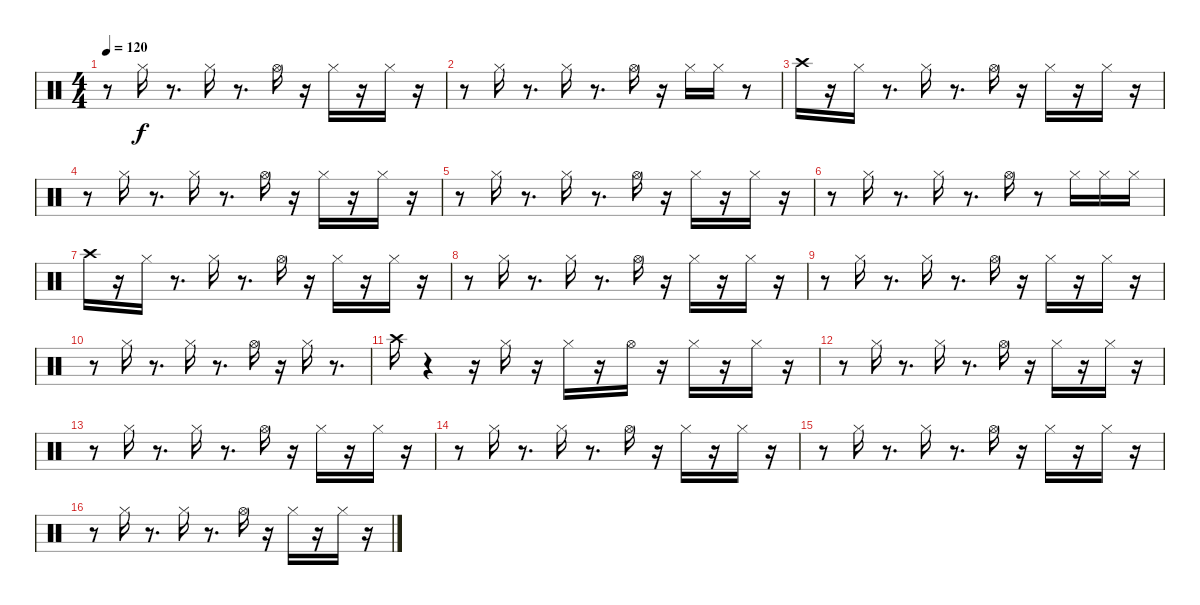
\track "" {instrument percussion}
\staff {score}
\articulation defaults
\ts (4 4)
\tempo 120
\clef neutral
\ks c
r.8{dy f} "Hi-Hat (closed)".16 r.8{d} "Hi-Hat (closed)".16 r.8{d} "Hi-Hat (open)".16 r.16 "Hi-Hat (closed)".16 r.16 "Hi-Hat (closed)".16 r.16 |
r.8 "Hi-Hat (closed)".16 r.8{d} "Hi-Hat (closed)".16 r.8{d} "Hi-Hat (open)".16 r.16 "Hi-Hat (closed)".16 "Hi-Hat (closed)".16 r.8 |
"Crash high (hit)".16 r.16 "Hi-Hat (closed)".16 r.8{d} "Hi-Hat (closed)".16 r.8{d} "Hi-Hat (open)".16 r.16 "Hi-Hat (closed)".16 r.16 "Hi-Hat (closed)".16 r.16 |
r.8 "Hi-Hat (closed)".16 r.8{d} "Hi-Hat (closed)".16 r.8{d} "Hi-Hat (open)".16 r.16 "Hi-Hat (closed)".16 r.16 "Hi-Hat (closed)".16 r.16 |
r.8 "Hi-Hat (closed)".16 r.8{d} "Hi-Hat (closed)".16 r.8{d} "Hi-Hat (open)".16 r.16 "Hi-Hat (closed)".16 r.16 "Hi-Hat (closed)".16 r.16 |
r.8 "Hi-Hat (closed)".16 r.8{d} "Hi-Hat (closed)".16 r.8{d} "Hi-Hat (open)".16 r.8 "Hi-Hat (closed)".16 "Hi-Hat (closed)".16 "Hi-Hat (closed)".16 |
"Crash high (hit)".16 r.16 "Hi-Hat (closed)".16 r.8{d} "Hi-Hat (closed)".16 r.8{d} "Hi-Hat (open)".16 r.16 "Hi-Hat (closed)".16 r.16 "Hi-Hat (closed)".16 r.16 |
r.8 "Hi-Hat (closed)".16 r.8{d} "Hi-Hat (closed)".16 r.8{d} "Hi-Hat (open)".16 r.16 "Hi-Hat (closed)".16 r.16 "Hi-Hat (closed)".16 r.16 |
r.8 "Hi-Hat (closed)".16 r.8{d} "Hi-Hat (closed)".16 r.8{d} "Hi-Hat (open)".16 r.16 "Hi-Hat (closed)".16 r.16 "Hi-Hat (closed)".16 r.16 |
r.8 "Hi-Hat (closed)".16 r.8{d} "Hi-Hat (closed)".16 r.8{d} "Hi-Hat (open)".16 r.16 "Hi-Hat (closed)".16 r.8{d} |
"Crash high (hit)".16 r.4 r.16 "Hi-Hat (closed)".16 r.16 "Hi-Hat (closed)".16 r.16 "Hi-Hat (open)".16 r.16 "Hi-Hat (closed)".16 r.16 "Hi-Hat (closed)".16 r.16 |
r.8 "Hi-Hat (closed)".16 r.8{d} "Hi-Hat (closed)".16 r.8{d} "Hi-Hat (open)".16 r.16 "Hi-Hat (closed)".16 r.16 "Hi-Hat (closed)".16 r.16 |
r.8 "Hi-Hat (closed)".16 r.8{d} "Hi-Hat (closed)".16 r.8{d} "Hi-Hat (open)".16 r.16 "Hi-Hat (closed)".16 r.16 "Hi-Hat (closed)".16 r.16 |
r.8 "Hi-Hat (closed)".16 r.8{d} "Hi-Hat (closed)".16 r.8{d} "Hi-Hat (open)".16 r.16 "Hi-Hat (closed)".16 r.16 "Hi-Hat (closed)".16 r.16 |
r.8 "Hi-Hat (closed)".16 r.8{d} "Hi-Hat (closed)".16 r.8{d} "Hi-Hat (open)".16 r.16 "Hi-Hat (closed)".16 r.16 "Hi-Hat (closed)".16 r.16 |
r.8 "Hi-Hat (closed)".16 r.8{d} "Hi-Hat (closed)".16 r.8{d} "Hi-Hat (open)".16 r.16 "Hi-Hat (closed)".16 r.16 "Hi-Hat (closed)".16 r.16
